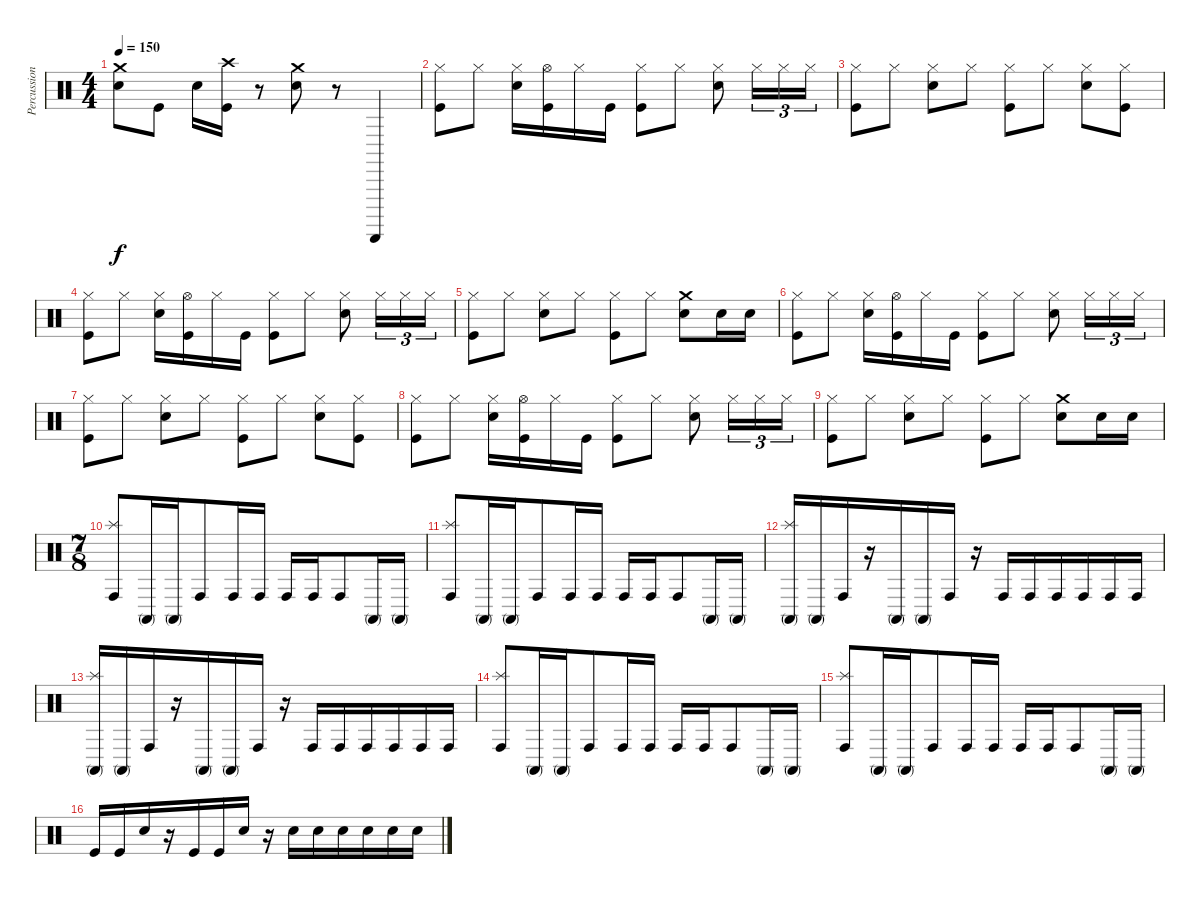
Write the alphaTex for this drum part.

\track ("Percussion" "Percussion") {instrument percussion}
\staff {score}
\articulation defaults
\ts (4 4)
\tempo 150
\clef neutral
\ks c
("Crash medium (hit)" "Snare (hit) 2").8{dy f} "Kick (hit)".8 "Snare (hit) 2".16 ("Crash high (hit)" "Kick (hit)").16 r.8 ("Crash medium (hit)" "Snare (hit) 2").8 r.8 "Guiro (scrap-return)".4 |
("Hi-Hat (closed)" "Kick (hit)").8 "Hi-Hat (closed)".8 ("Hi-Hat (closed)" "Snare (hit) 2").16 ("Hi-Hat (open)" "Kick (hit)").16 "Hi-Hat (closed)".16 "Kick (hit)".16 ("Hi-Hat (closed)" "Kick (hit)").8 "Hi-Hat (closed)".8 ("Hi-Hat (closed)" "Snare (hit) 2").8 "Hi-Hat (closed)".16{tu (3 2)} "Hi-Hat (closed)".16{tu (3 2)} "Hi-Hat (closed)".16{tu (3 2)} |
("Hi-Hat (closed)" "Kick (hit)").8 "Hi-Hat (closed)".8 ("Hi-Hat (closed)" "Snare (hit) 2").8 "Hi-Hat (closed)".8 ("Hi-Hat (closed)" "Kick (hit)").8 "Hi-Hat (closed)".8 ("Hi-Hat (closed)" "Snare (hit) 2").8 ("Hi-Hat (closed)" "Kick (hit)").8 |
("Hi-Hat (closed)" "Kick (hit)").8 "Hi-Hat (closed)".8 ("Hi-Hat (closed)" "Snare (hit) 2").16 ("Hi-Hat (open)" "Kick (hit)").16 "Hi-Hat (closed)".16 "Kick (hit)".16 ("Hi-Hat (closed)" "Kick (hit)").8 "Hi-Hat (closed)".8 ("Hi-Hat (closed)" "Snare (hit) 2").8 "Hi-Hat (closed)".16{tu (3 2)} "Hi-Hat (closed)".16{tu (3 2)} "Hi-Hat (closed)".16{tu (3 2)} |
("Hi-Hat (closed)" "Kick (hit)").8 "Hi-Hat (closed)".8 ("Hi-Hat (closed)" "Snare (hit) 2").8 "Hi-Hat (closed)".8 ("Hi-Hat (closed)" "Kick (hit)").8 "Hi-Hat (closed)".8 ("Crash medium (hit)" "Snare (hit) 2").8 "Snare (hit) 2".16 "Snare (hit) 2".16 |
("Hi-Hat (closed)" "Kick (hit)").8 "Hi-Hat (closed)".8 ("Hi-Hat (closed)" "Snare (hit) 2").16 ("Hi-Hat (open)" "Kick (hit)").16 "Hi-Hat (closed)".16 "Kick (hit)".16 ("Hi-Hat (closed)" "Kick (hit)").8 "Hi-Hat (closed)".8 ("Hi-Hat (closed)" "Snare (hit) 2").8 "Hi-Hat (closed)".16{tu (3 2)} "Hi-Hat (closed)".16{tu (3 2)} "Hi-Hat (closed)".16{tu (3 2)} |
("Hi-Hat (closed)" "Kick (hit)").8 "Hi-Hat (closed)".8 ("Hi-Hat (closed)" "Snare (hit) 2").8 "Hi-Hat (closed)".8 ("Hi-Hat (closed)" "Kick (hit)").8 "Hi-Hat (closed)".8 ("Hi-Hat (closed)" "Snare (hit) 2").8 ("Hi-Hat (closed)" "Kick (hit)").8 |
("Hi-Hat (closed)" "Kick (hit)").8 "Hi-Hat (closed)".8 ("Hi-Hat (closed)" "Snare (hit) 2").16 ("Hi-Hat (open)" "Kick (hit)").16 "Hi-Hat (closed)".16 "Kick (hit)".16 ("Hi-Hat (closed)" "Kick (hit)").8 "Hi-Hat (closed)".8 ("Hi-Hat (closed)" "Snare (hit) 2").8 "Hi-Hat (closed)".16{tu (3 2)} "Hi-Hat (closed)".16{tu (3 2)} "Hi-Hat (closed)".16{tu (3 2)} |
("Hi-Hat (closed)" "Kick (hit)").8 "Hi-Hat (closed)".8 ("Hi-Hat (closed)" "Snare (hit) 2").8 "Hi-Hat (closed)".8 ("Hi-Hat (closed)" "Kick (hit)").8 "Hi-Hat (closed)".8 ("Crash medium (hit)" "Snare (hit) 2").8 "Snare (hit) 2".16 "Snare (hit) 2".16 |
\ts (7 8)
("Splash (hit)" "Conga high (hit)").8 "Conga high (mute)".16 "Conga high (mute)".16 "Conga high (hit)".8 "Conga high (hit)".16 "Conga high (hit)".16 "Conga high (hit)".16 "Conga high (hit)".16 "Conga high (hit)".8 "Conga high (mute)".16 "Conga high (mute)".16 |
("Splash (hit)" "Conga high (hit)").8 "Conga high (mute)".16 "Conga high (mute)".16 "Conga high (hit)".8 "Conga high (hit)".16 "Conga high (hit)".16 "Conga high (hit)".16 "Conga high (hit)".16 "Conga high (hit)".8 "Conga high (mute)".16 "Conga high (mute)".16 |
("Splash (hit)" "Conga high (mute)").16 "Conga high (mute)".16 "Conga high (hit)".16 r.16 "Conga high (mute)".16 "Conga high (mute)".16 "Conga high (hit)".16 r.16 "Conga high (hit)".16 "Conga high (hit)".16 "Conga high (hit)".16 "Conga high (hit)".16 "Conga high (hit)".16 "Conga high (hit)".16 |
("Splash (hit)" "Conga high (mute)").16 "Conga high (mute)".16 "Conga high (hit)".16 r.16 "Conga high (mute)".16 "Conga high (mute)".16 "Conga high (hit)".16 r.16 "Conga high (hit)".16 "Conga high (hit)".16 "Conga high (hit)".16 "Conga high (hit)".16 "Conga high (hit)".16 "Conga high (hit)".16 |
("Splash (hit)" "Conga high (hit)").8 "Conga high (mute)".16 "Conga high (mute)".16 "Conga high (hit)".8 "Conga high (hit)".16 "Conga high (hit)".16 "Conga high (hit)".16 "Conga high (hit)".16 "Conga high (hit)".8 "Conga high (mute)".16 "Conga high (mute)".16 |
("Splash (hit)" "Conga high (hit)").8 "Conga high (mute)".16 "Conga high (mute)".16 "Conga high (hit)".8 "Conga high (hit)".16 "Conga high (hit)".16 "Conga high (hit)".16 "Conga high (hit)".16 "Conga high (hit)".8 "Conga high (mute)".16 "Conga high (mute)".16 |
"Kick (hit)".16 "Kick (hit)".16 "Snare (hit) 2".16 r.16 "Kick (hit)".16 "Kick (hit)".16 "Snare (hit) 2".16 r.16 "Snare (hit) 2".16 "Snare (hit) 2".16 "Snare (hit) 2".16 "Snare (hit) 2".16 "Snare (hit) 2".16 "Snare (hit) 2".16
